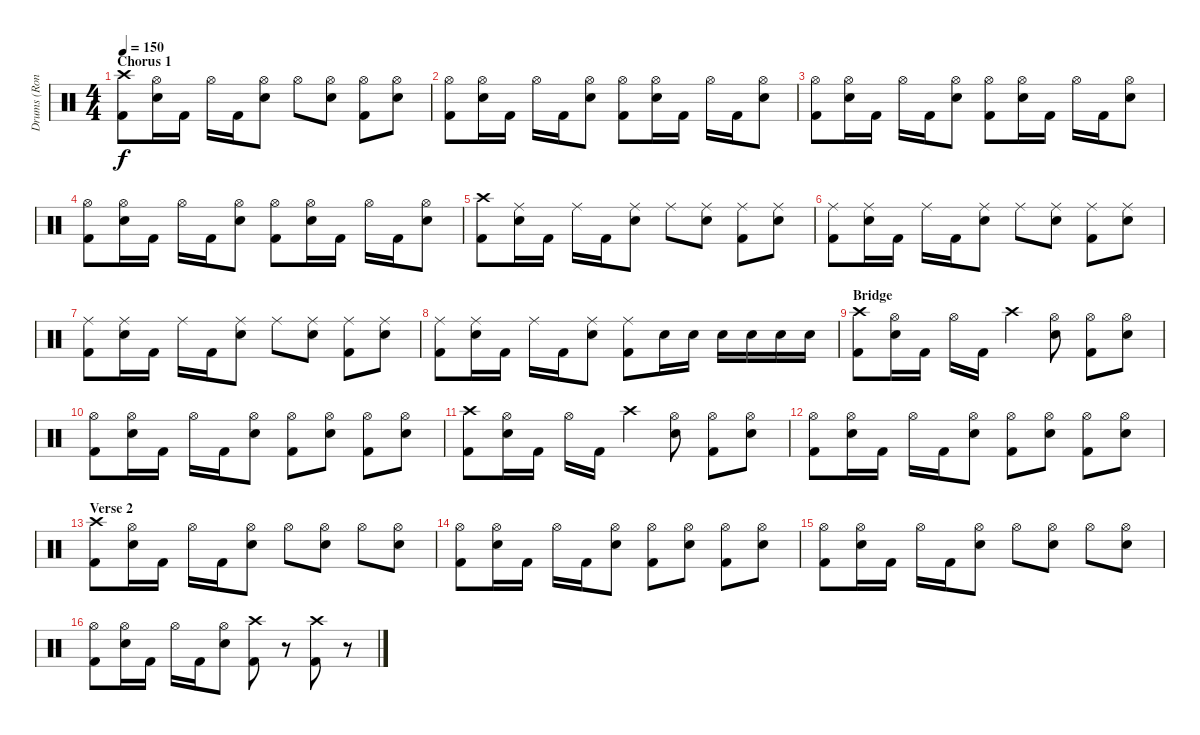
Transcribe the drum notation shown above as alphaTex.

\track ("Drums (Ron Welty)" "Drums (Ron") {instrument percussion}
\staff {score}
\articulation defaults
\ts (4 4)
\section ("" "Chorus 1")
\tempo 150
\clef neutral
\ks c
("Crash high (hit)" "Kick (hit) 2").8{dy f} ("Hi-Hat (open)" "Electric Snare (hit)").16 "Kick (hit) 2".16 "Hi-Hat (open)".16 "Kick (hit) 2".16 ("Hi-Hat (open)" "Electric Snare (hit)").8 "Hi-Hat (open)".8 ("Hi-Hat (open)" "Electric Snare (hit)").8 ("Hi-Hat (open)" "Kick (hit) 2").8 ("Hi-Hat (open)" "Electric Snare (hit)").8 |
("Hi-Hat (open)" "Kick (hit) 2").8 ("Hi-Hat (open)" "Electric Snare (hit)").16 "Kick (hit) 2".16 "Hi-Hat (open)".16 "Kick (hit) 2".16 ("Hi-Hat (open)" "Electric Snare (hit)").8 ("Hi-Hat (open)" "Kick (hit) 2").8 ("Hi-Hat (open)" "Electric Snare (hit)").16 "Kick (hit) 2".16 "Hi-Hat (open)".16 "Kick (hit) 2".16 ("Hi-Hat (open)" "Electric Snare (hit)").8 |
("Hi-Hat (open)" "Kick (hit) 2").8 ("Hi-Hat (open)" "Electric Snare (hit)").16 "Kick (hit) 2".16 "Hi-Hat (open)".16 "Kick (hit) 2".16 ("Hi-Hat (open)" "Electric Snare (hit)").8 ("Hi-Hat (open)" "Kick (hit) 2").8 ("Hi-Hat (open)" "Electric Snare (hit)").16 "Kick (hit) 2".16 "Hi-Hat (open)".16 "Kick (hit) 2".16 ("Hi-Hat (open)" "Electric Snare (hit)").8 |
("Hi-Hat (open)" "Kick (hit) 2").8 ("Hi-Hat (open)" "Electric Snare (hit)").16 "Kick (hit) 2".16 "Hi-Hat (open)".16 "Kick (hit) 2".16 ("Hi-Hat (open)" "Electric Snare (hit)").8 ("Hi-Hat (open)" "Kick (hit) 2").8 ("Hi-Hat (open)" "Electric Snare (hit)").16 "Kick (hit) 2".16 "Hi-Hat (open)".16 "Kick (hit) 2".16 ("Hi-Hat (open)" "Electric Snare (hit)").8 |
("Crash high (hit)" "Kick (hit) 2").8 ("Ride (middle)" "Electric Snare (hit)").16 "Kick (hit) 2".16 "Ride (middle)".16 "Kick (hit) 2".16 ("Ride (middle)" "Electric Snare (hit)").8 "Ride (middle)".8 ("Ride (middle)" "Electric Snare (hit)").8 ("Ride (middle)" "Kick (hit) 2").8 ("Ride (middle)" "Electric Snare (hit)").8 |
("Ride (middle)" "Kick (hit) 2").8 ("Ride (middle)" "Electric Snare (hit)").16 "Kick (hit) 2".16 "Ride (middle)".16 "Kick (hit) 2".16 ("Ride (middle)" "Electric Snare (hit)").8 "Ride (middle)".8 ("Ride (middle)" "Electric Snare (hit)").8 ("Ride (middle)" "Kick (hit) 2").8 ("Ride (middle)" "Electric Snare (hit)").8 |
("Ride (middle)" "Kick (hit) 2").8 ("Ride (middle)" "Electric Snare (hit)").16 "Kick (hit) 2".16 "Ride (middle)".16 "Kick (hit) 2".16 ("Ride (middle)" "Electric Snare (hit)").8 "Ride (middle)".8 ("Ride (middle)" "Electric Snare (hit)").8 ("Ride (middle)" "Kick (hit) 2").8 ("Ride (middle)" "Electric Snare (hit)").8 |
("Ride (middle)" "Kick (hit) 2").8 ("Ride (middle)" "Electric Snare (hit)").16 "Kick (hit) 2".16 "Ride (middle)".16 "Kick (hit) 2".16 ("Ride (middle)" "Electric Snare (hit)").8 ("Ride (middle)" "Kick (hit) 2").8 "Electric Snare (hit)".16 "Electric Snare (hit)".16 "Electric Snare (hit)".16 "Electric Snare (hit)".16 "Electric Snare (hit)".16 "Electric Snare (hit)".16 |
\section ("" "Bridge")
("Crash high (hit)" "Kick (hit) 2").8 ("Hi-Hat (open)" "Electric Snare (hit)").16 "Kick (hit) 2".16 "Hi-Hat (open)".16 "Kick (hit) 2".16 "Crash high (hit)".4 ("Hi-Hat (open)" "Electric Snare (hit)").8 ("Hi-Hat (open)" "Kick (hit) 2").8 ("Hi-Hat (open)" "Electric Snare (hit)").8 |
("Hi-Hat (open)" "Kick (hit) 2").8 ("Hi-Hat (open)" "Electric Snare (hit)").16 "Kick (hit) 2".16 "Hi-Hat (open)".16 "Kick (hit) 2".16 ("Hi-Hat (open)" "Electric Snare (hit)").8 ("Hi-Hat (open)" "Kick (hit) 2").8 ("Hi-Hat (open)" "Electric Snare (hit)").8 ("Hi-Hat (open)" "Kick (hit) 2").8 ("Hi-Hat (open)" "Electric Snare (hit)").8 |
("Crash high (hit)" "Kick (hit) 2").8 ("Hi-Hat (open)" "Electric Snare (hit)").16 "Kick (hit) 2".16 "Hi-Hat (open)".16 "Kick (hit) 2".16 "Crash high (hit)".4 ("Hi-Hat (open)" "Electric Snare (hit)").8 ("Hi-Hat (open)" "Kick (hit) 2").8 ("Hi-Hat (open)" "Electric Snare (hit)").8 |
("Hi-Hat (open)" "Kick (hit) 2").8 ("Hi-Hat (open)" "Electric Snare (hit)").16 "Kick (hit) 2".16 "Hi-Hat (open)".16 "Kick (hit) 2".16 ("Hi-Hat (open)" "Electric Snare (hit)").8 ("Hi-Hat (open)" "Kick (hit) 2").8 ("Hi-Hat (open)" "Electric Snare (hit)").8 ("Hi-Hat (open)" "Kick (hit) 2").8 ("Hi-Hat (open)" "Electric Snare (hit)").8 |
\section ("" "Verse 2")
("Crash high (hit)" "Kick (hit) 2").8 ("Hi-Hat (open)" "Electric Snare (hit)").16 "Kick (hit) 2".16 "Hi-Hat (open)".16 "Kick (hit) 2".16 ("Hi-Hat (open)" "Electric Snare (hit)").8 "Hi-Hat (open)".8 ("Hi-Hat (open)" "Electric Snare (hit)").8 "Hi-Hat (open)".8 ("Hi-Hat (open)" "Electric Snare (hit)").8 |
("Hi-Hat (open)" "Kick (hit) 2").8 ("Hi-Hat (open)" "Electric Snare (hit)").16 "Kick (hit) 2".16 "Hi-Hat (open)".16 "Kick (hit) 2".16 ("Hi-Hat (open)" "Electric Snare (hit)").8 ("Hi-Hat (open)" "Kick (hit) 2").8 ("Hi-Hat (open)" "Electric Snare (hit)").8 ("Hi-Hat (open)" "Kick (hit) 2").8 ("Hi-Hat (open)" "Electric Snare (hit)").8 |
("Hi-Hat (open)" "Kick (hit) 2").8 ("Hi-Hat (open)" "Electric Snare (hit)").16 "Kick (hit) 2".16 "Hi-Hat (open)".16 "Kick (hit) 2".16 ("Hi-Hat (open)" "Electric Snare (hit)").8 "Hi-Hat (open)".8 ("Hi-Hat (open)" "Electric Snare (hit)").8 "Hi-Hat (open)".8 ("Hi-Hat (open)" "Electric Snare (hit)").8 |
("Hi-Hat (open)" "Kick (hit) 2").8 ("Hi-Hat (open)" "Electric Snare (hit)").16 "Kick (hit) 2".16 "Hi-Hat (open)".16 "Kick (hit) 2".16 ("Hi-Hat (open)" "Electric Snare (hit)").8 ("Crash high (hit)" "Kick (hit) 2").8 r.8 ("Crash high (hit)" "Kick (hit) 2").8 r.8
